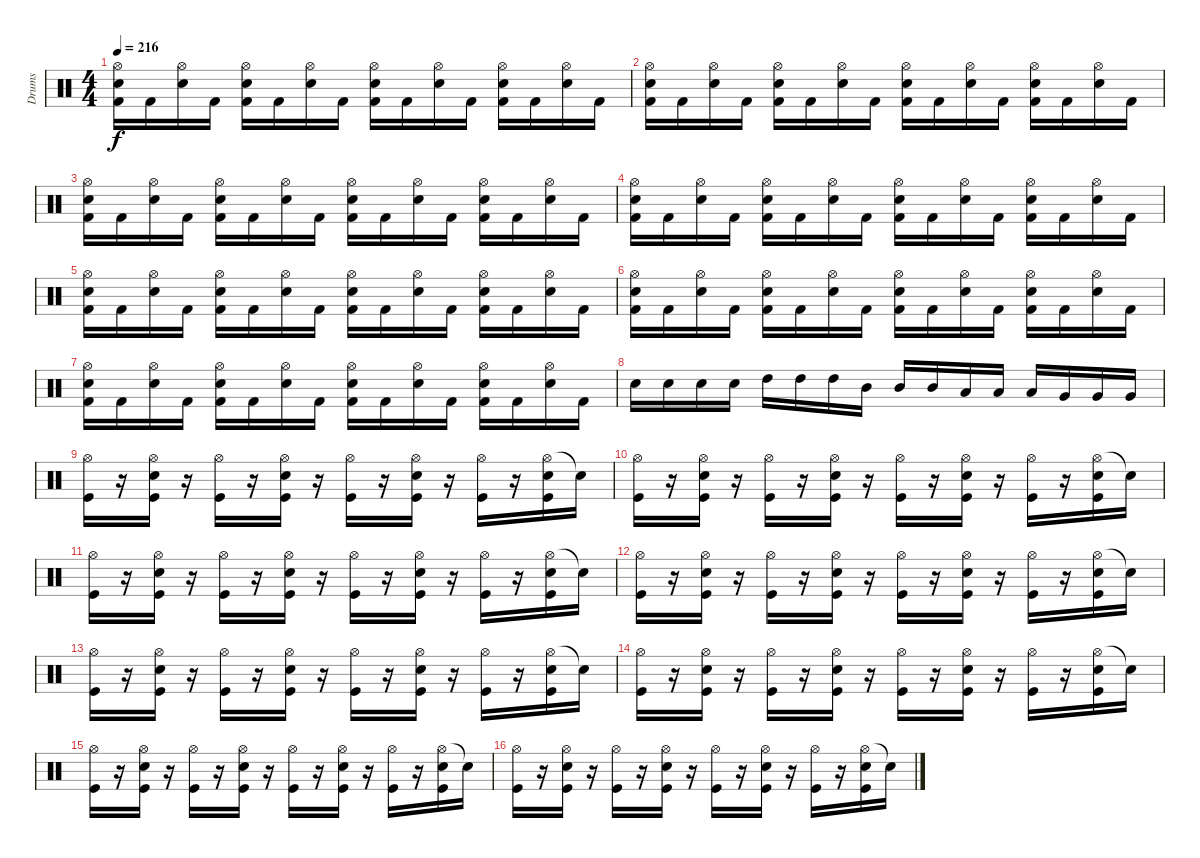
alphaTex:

\track ("Drums" "Drums") {instrument percussion}
\staff {score}
\articulation defaults
\ts (4 4)
\tempo 216
\clef neutral
\ks c
("Hi-Hat (open)" "Snare (hit) 2" "Kick (hit) 2").16{dy f} "Kick (hit) 2".16 ("Hi-Hat (open)" "Snare (hit) 2").16 "Kick (hit) 2".16 ("Hi-Hat (open)" "Snare (hit) 2" "Kick (hit) 2").16 "Kick (hit) 2".16 ("Hi-Hat (open)" "Snare (hit) 2").16 "Kick (hit) 2".16 ("Hi-Hat (open)" "Snare (hit) 2" "Kick (hit) 2").16 "Kick (hit) 2".16 ("Hi-Hat (open)" "Snare (hit) 2").16 "Kick (hit) 2".16 ("Hi-Hat (open)" "Snare (hit) 2" "Kick (hit) 2").16 "Kick (hit) 2".16 ("Hi-Hat (open)" "Snare (hit) 2").16 "Kick (hit) 2".16 |
("Hi-Hat (open)" "Snare (hit) 2" "Kick (hit) 2").16 "Kick (hit) 2".16 ("Hi-Hat (open)" "Snare (hit) 2").16 "Kick (hit) 2".16 ("Hi-Hat (open)" "Snare (hit) 2" "Kick (hit) 2").16 "Kick (hit) 2".16 ("Hi-Hat (open)" "Snare (hit) 2").16 "Kick (hit) 2".16 ("Hi-Hat (open)" "Snare (hit) 2" "Kick (hit) 2").16 "Kick (hit) 2".16 ("Hi-Hat (open)" "Snare (hit) 2").16 "Kick (hit) 2".16 ("Hi-Hat (open)" "Snare (hit) 2" "Kick (hit) 2").16 "Kick (hit) 2".16 ("Hi-Hat (open)" "Snare (hit) 2").16 "Kick (hit) 2".16 |
("Hi-Hat (open)" "Snare (hit) 2" "Kick (hit) 2").16 "Kick (hit) 2".16 ("Hi-Hat (open)" "Snare (hit) 2").16 "Kick (hit) 2".16 ("Hi-Hat (open)" "Snare (hit) 2" "Kick (hit) 2").16 "Kick (hit) 2".16 ("Hi-Hat (open)" "Snare (hit) 2").16 "Kick (hit) 2".16 ("Hi-Hat (open)" "Snare (hit) 2" "Kick (hit) 2").16 "Kick (hit) 2".16 ("Hi-Hat (open)" "Snare (hit) 2").16 "Kick (hit) 2".16 ("Hi-Hat (open)" "Snare (hit) 2" "Kick (hit) 2").16 "Kick (hit) 2".16 ("Hi-Hat (open)" "Snare (hit) 2").16 "Kick (hit) 2".16 |
("Hi-Hat (open)" "Snare (hit) 2" "Kick (hit) 2").16 "Kick (hit) 2".16 ("Hi-Hat (open)" "Snare (hit) 2").16 "Kick (hit) 2".16 ("Hi-Hat (open)" "Snare (hit) 2" "Kick (hit) 2").16 "Kick (hit) 2".16 ("Hi-Hat (open)" "Snare (hit) 2").16 "Kick (hit) 2".16 ("Hi-Hat (open)" "Snare (hit) 2" "Kick (hit) 2").16 "Kick (hit) 2".16 ("Hi-Hat (open)" "Snare (hit) 2").16 "Kick (hit) 2".16 ("Hi-Hat (open)" "Snare (hit) 2" "Kick (hit) 2").16 "Kick (hit) 2".16 ("Hi-Hat (open)" "Snare (hit) 2").16 "Kick (hit) 2".16 |
("Hi-Hat (open)" "Snare (hit) 2" "Kick (hit) 2").16 "Kick (hit) 2".16 ("Hi-Hat (open)" "Snare (hit) 2").16 "Kick (hit) 2".16 ("Hi-Hat (open)" "Snare (hit) 2" "Kick (hit) 2").16 "Kick (hit) 2".16 ("Hi-Hat (open)" "Snare (hit) 2").16 "Kick (hit) 2".16 ("Hi-Hat (open)" "Snare (hit) 2" "Kick (hit) 2").16 "Kick (hit) 2".16 ("Hi-Hat (open)" "Snare (hit) 2").16 "Kick (hit) 2".16 ("Hi-Hat (open)" "Snare (hit) 2" "Kick (hit) 2").16 "Kick (hit) 2".16 ("Hi-Hat (open)" "Snare (hit) 2").16 "Kick (hit) 2".16 |
("Hi-Hat (open)" "Snare (hit) 2" "Kick (hit) 2").16 "Kick (hit) 2".16 ("Hi-Hat (open)" "Snare (hit) 2").16 "Kick (hit) 2".16 ("Hi-Hat (open)" "Snare (hit) 2" "Kick (hit) 2").16 "Kick (hit) 2".16 ("Hi-Hat (open)" "Snare (hit) 2").16 "Kick (hit) 2".16 ("Hi-Hat (open)" "Snare (hit) 2" "Kick (hit) 2").16 "Kick (hit) 2".16 ("Hi-Hat (open)" "Snare (hit) 2").16 "Kick (hit) 2".16 ("Hi-Hat (open)" "Snare (hit) 2" "Kick (hit) 2").16 "Kick (hit) 2".16 ("Hi-Hat (open)" "Snare (hit) 2").16 "Kick (hit) 2".16 |
("Hi-Hat (open)" "Snare (hit) 2" "Kick (hit) 2").16 "Kick (hit) 2".16 ("Hi-Hat (open)" "Snare (hit) 2").16 "Kick (hit) 2".16 ("Hi-Hat (open)" "Snare (hit) 2" "Kick (hit) 2").16 "Kick (hit) 2".16 ("Hi-Hat (open)" "Snare (hit) 2").16 "Kick (hit) 2".16 ("Hi-Hat (open)" "Snare (hit) 2" "Kick (hit) 2").16 "Kick (hit) 2".16 ("Hi-Hat (open)" "Snare (hit) 2").16 "Kick (hit) 2".16 ("Hi-Hat (open)" "Snare (hit) 2" "Kick (hit) 2").16 "Kick (hit) 2".16 ("Hi-Hat (open)" "Snare (hit) 2").16 "Kick (hit) 2".16 |
"Electric Snare (hit)".16 "Electric Snare (hit)".16 "Electric Snare (hit)".16 "Electric Snare (hit)".16 "High Tom (hit)".16 "High Tom (hit)".16 "High Tom (hit)".16 "Mid Tom (hit)".16 "Mid Tom (hit)".16 "Mid Tom (hit)".16 "Low Tom (hit)".16 "Low Tom (hit)".16 "Low Tom (hit)".16 "Very Low Tom (hit)".16 "Very Low Tom (hit)".16 "Very Low Tom (hit)".16 |
("Hi-Hat (open)" "Kick (hit)").16 r.16 ("Hi-Hat (open)" "Snare (hit) 2" "Kick (hit)").16 r.16 ("Hi-Hat (open)" "Kick (hit)").16 r.16 ("Hi-Hat (open)" "Snare (hit) 2" "Kick (hit)").16 r.16 ("Hi-Hat (open)" "Kick (hit)").16 r.16 ("Hi-Hat (open)" "Snare (hit) 2" "Kick (hit)").16 r.16 ("Hi-Hat (open)" "Kick (hit)").16 r.16 ("Hi-Hat (open)" "Snare (hit) 2" "Kick (hit)").16 "Snare (hit)"{t}.16 |
("Hi-Hat (open)" "Kick (hit)").16 r.16 ("Hi-Hat (open)" "Snare (hit) 2" "Kick (hit)").16 r.16 ("Hi-Hat (open)" "Kick (hit)").16 r.16 ("Hi-Hat (open)" "Snare (hit) 2" "Kick (hit)").16 r.16 ("Hi-Hat (open)" "Kick (hit)").16 r.16 ("Hi-Hat (open)" "Snare (hit) 2" "Kick (hit)").16 r.16 ("Hi-Hat (open)" "Kick (hit)").16 r.16 ("Hi-Hat (open)" "Snare (hit) 2" "Kick (hit)").16 "Snare (hit)"{t}.16 |
("Hi-Hat (open)" "Kick (hit)").16 r.16 ("Hi-Hat (open)" "Snare (hit) 2" "Kick (hit)").16 r.16 ("Hi-Hat (open)" "Kick (hit)").16 r.16 ("Hi-Hat (open)" "Snare (hit) 2" "Kick (hit)").16 r.16 ("Hi-Hat (open)" "Kick (hit)").16 r.16 ("Hi-Hat (open)" "Snare (hit) 2" "Kick (hit)").16 r.16 ("Hi-Hat (open)" "Kick (hit)").16 r.16 ("Hi-Hat (open)" "Snare (hit) 2" "Kick (hit)").16 "Snare (hit)"{t}.16 |
("Hi-Hat (open)" "Kick (hit)").16 r.16 ("Hi-Hat (open)" "Snare (hit) 2" "Kick (hit)").16 r.16 ("Hi-Hat (open)" "Kick (hit)").16 r.16 ("Hi-Hat (open)" "Snare (hit) 2" "Kick (hit)").16 r.16 ("Hi-Hat (open)" "Kick (hit)").16 r.16 ("Hi-Hat (open)" "Snare (hit) 2" "Kick (hit)").16 r.16 ("Hi-Hat (open)" "Kick (hit)").16 r.16 ("Hi-Hat (open)" "Snare (hit) 2" "Kick (hit)").16 "Snare (hit)"{t}.16 |
("Hi-Hat (open)" "Kick (hit)").16 r.16 ("Hi-Hat (open)" "Snare (hit) 2" "Kick (hit)").16 r.16 ("Hi-Hat (open)" "Kick (hit)").16 r.16 ("Hi-Hat (open)" "Snare (hit) 2" "Kick (hit)").16 r.16 ("Hi-Hat (open)" "Kick (hit)").16 r.16 ("Hi-Hat (open)" "Snare (hit) 2" "Kick (hit)").16 r.16 ("Hi-Hat (open)" "Kick (hit)").16 r.16 ("Hi-Hat (open)" "Snare (hit) 2" "Kick (hit)").16 "Snare (hit)"{t}.16 |
("Hi-Hat (open)" "Kick (hit)").16 r.16 ("Hi-Hat (open)" "Snare (hit) 2" "Kick (hit)").16 r.16 ("Hi-Hat (open)" "Kick (hit)").16 r.16 ("Hi-Hat (open)" "Snare (hit) 2" "Kick (hit)").16 r.16 ("Hi-Hat (open)" "Kick (hit)").16 r.16 ("Hi-Hat (open)" "Snare (hit) 2" "Kick (hit)").16 r.16 ("Hi-Hat (open)" "Kick (hit)").16 r.16 ("Hi-Hat (open)" "Snare (hit) 2" "Kick (hit)").16 "Snare (hit)"{t}.16 |
("Hi-Hat (open)" "Kick (hit)").16 r.16 ("Hi-Hat (open)" "Snare (hit) 2" "Kick (hit)").16 r.16 ("Hi-Hat (open)" "Kick (hit)").16 r.16 ("Hi-Hat (open)" "Snare (hit) 2" "Kick (hit)").16 r.16 ("Hi-Hat (open)" "Kick (hit)").16 r.16 ("Hi-Hat (open)" "Snare (hit) 2" "Kick (hit)").16 r.16 ("Hi-Hat (open)" "Kick (hit)").16 r.16 ("Hi-Hat (open)" "Snare (hit) 2" "Kick (hit)").16 "Snare (hit)"{t}.16 |
("Hi-Hat (open)" "Kick (hit)").16 r.16 ("Hi-Hat (open)" "Snare (hit) 2" "Kick (hit)").16 r.16 ("Hi-Hat (open)" "Kick (hit)").16 r.16 ("Hi-Hat (open)" "Snare (hit) 2" "Kick (hit)").16 r.16 ("Hi-Hat (open)" "Kick (hit)").16 r.16 ("Hi-Hat (open)" "Snare (hit) 2" "Kick (hit)").16 r.16 ("Hi-Hat (open)" "Kick (hit)").16 r.16 ("Hi-Hat (open)" "Snare (hit) 2" "Kick (hit)").16 "Snare (hit)"{t}.16
